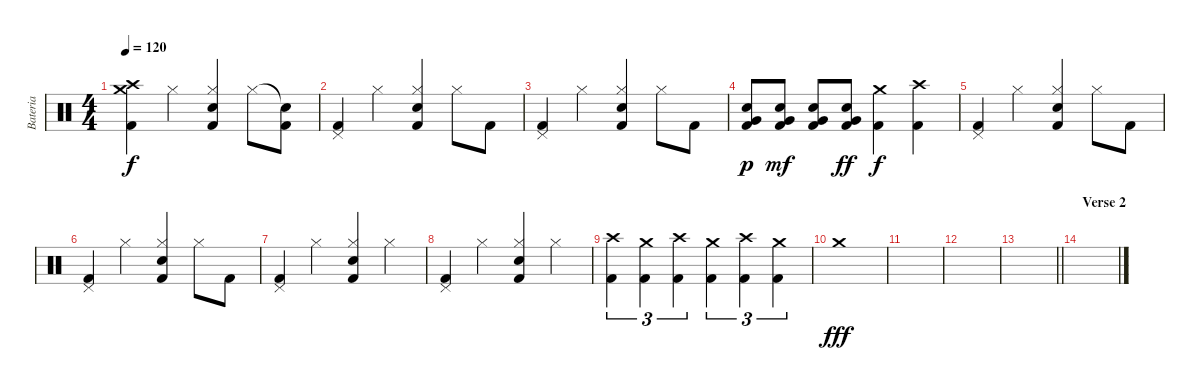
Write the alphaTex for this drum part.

\track ("Bateria" "Bateria") {instrument percussion}
\staff {score}
\articulation defaults
\ts (4 4)
\tempo 120
\clef neutral
\ks c
("Crash medium (hit)" "Crash high (hit)" "Kick (hit) 2").4{dy f} "Hi-Hat (closed)".4 ("Hi-Hat (closed)" "Electric Snare (hit)" "Kick (hit) 2").4 "Hi-Hat (closed)".8 ("Snare (hit)"{t} "Kick (hit) 2").8 |
("Pedal Hi-Hat (hit)" "Kick (hit) 2").4 "Hi-Hat (closed)".4 ("Hi-Hat (closed)" "Electric Snare (hit)" "Kick (hit) 2").4 "Hi-Hat (closed)".8 "Kick (hit) 2".8 |
("Pedal Hi-Hat (hit)" "Kick (hit) 2").4 "Hi-Hat (closed)".4 ("Hi-Hat (closed)" "Electric Snare (hit)" "Kick (hit) 2").4 "Hi-Hat (closed)".8 "Kick (hit) 2".8 |
("Very Low Tom (hit)" "Electric Snare (hit)" "Kick (hit) 2").8{dy p} ("Very Low Tom (hit)" "Electric Snare (hit)" "Kick (hit) 2").8{dy mf} ("Very Low Tom (hit)" "Electric Snare (hit)" "Kick (hit) 2").8 ("Very Low Tom (hit)" "Electric Snare (hit)" "Kick (hit) 2").8{dy ff} ("Crash medium (hit)" "Kick (hit) 2").4{dy f} ("Crash high (hit)" "Kick (hit) 2").4 |
("Pedal Hi-Hat (hit)" "Kick (hit) 2").4 "Hi-Hat (closed)".4 ("Hi-Hat (closed)" "Electric Snare (hit)" "Kick (hit) 2").4 "Hi-Hat (closed)".8 "Kick (hit) 2".8 |
("Pedal Hi-Hat (hit)" "Kick (hit) 2").4 "Hi-Hat (closed)".4 ("Hi-Hat (closed)" "Electric Snare (hit)" "Kick (hit) 2").4 "Hi-Hat (closed)".8 "Kick (hit) 2".8 |
("Pedal Hi-Hat (hit)" "Kick (hit) 2").4 "Hi-Hat (closed)".4 ("Hi-Hat (closed)" "Electric Snare (hit)" "Kick (hit) 2").4 "Hi-Hat (closed)".4 |
("Pedal Hi-Hat (hit)" "Kick (hit) 2").4 "Hi-Hat (closed)".4 ("Hi-Hat (closed)" "Electric Snare (hit)" "Kick (hit) 2").4 "Hi-Hat (closed)".4 |
("Crash high (hit)" "Kick (hit) 2").4{tu (3 2)} ("Crash medium (hit)" "Kick (hit) 2").4{tu (3 2)} ("Crash high (hit)" "Kick (hit) 2").4{tu (3 2)} ("Crash medium (hit)" "Kick (hit) 2").4{tu (3 2)} ("Crash high (hit)" "Kick (hit) 2").4{tu (3 2)} ("Crash medium (hit)" "Kick (hit) 2").4{tu (3 2)} |
"Crash medium (hit)".1{dy fff} |
|
|
\barLineRight lightlight
|
\section ("" "Verse 2")
